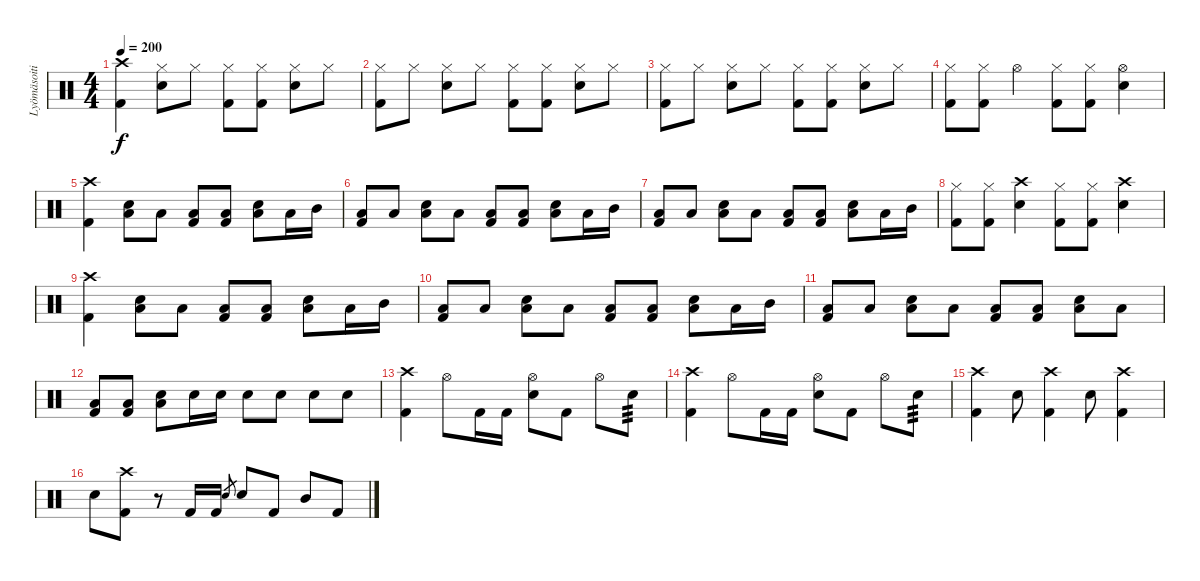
\track ("Lyömäsoitin" "Lyömäsoiti") {instrument percussion}
\staff {score}
\articulation defaults
\ts (4 4)
\tempo 200
\clef neutral
\ks c
("Crash high (hit)" "Kick (hit) 2").4{dy f} ("Hi-Hat (closed)" "Snare (hit) 2").8 "Hi-Hat (closed)".8 ("Hi-Hat (closed)" "Kick (hit) 2").8 ("Hi-Hat (closed)" "Kick (hit) 2").8 ("Hi-Hat (closed)" "Snare (hit) 2").8 "Hi-Hat (closed)".8 |
("Hi-Hat (closed)" "Kick (hit) 2").8 "Hi-Hat (closed)".8 ("Hi-Hat (closed)" "Snare (hit) 2").8 "Hi-Hat (closed)".8 ("Hi-Hat (closed)" "Kick (hit) 2").8 ("Hi-Hat (closed)" "Kick (hit) 2").8 ("Hi-Hat (closed)" "Snare (hit) 2").8 "Hi-Hat (closed)".8 |
("Hi-Hat (closed)" "Kick (hit) 2").8 "Hi-Hat (closed)".8 ("Hi-Hat (closed)" "Snare (hit) 2").8 "Hi-Hat (closed)".8 ("Hi-Hat (closed)" "Kick (hit) 2").8 ("Hi-Hat (closed)" "Kick (hit) 2").8 ("Hi-Hat (closed)" "Snare (hit) 2").8 "Hi-Hat (closed)".8 |
("Hi-Hat (closed)" "Kick (hit) 2").8 ("Hi-Hat (closed)" "Kick (hit) 2").8 "Hi-Hat (open)".4 ("Hi-Hat (closed)" "Kick (hit) 2").8 ("Hi-Hat (closed)" "Kick (hit) 2").8 ("Hi-Hat (open)" "Snare (hit) 2").4 |
("Crash high (hit)" "Kick (hit) 2").4 ("Snare (hit) 2" "Low Tom (hit)").8 "Low Tom (hit)".8 ("Low Tom (hit)" "Kick (hit) 2").8 ("Low Tom (hit)" "Kick (hit) 2").8 ("Snare (hit) 2" "Low Tom (hit)").8 "Low Tom (hit)".16 "Mid Tom (hit)".16 |
("Low Tom (hit)" "Kick (hit) 2").8 "Low Tom (hit)".8 ("Snare (hit) 2" "Low Tom (hit)").8 "Low Tom (hit)".8 ("Low Tom (hit)" "Kick (hit) 2").8 ("Low Tom (hit)" "Kick (hit) 2").8 ("Low Tom (hit)" "Snare (hit) 2").8 "Low Tom (hit)".16 "Mid Tom (hit)".16 |
("Low Tom (hit)" "Kick (hit) 2").8 "Low Tom (hit)".8 ("Snare (hit) 2" "Low Tom (hit)").8 "Low Tom (hit)".8 ("Low Tom (hit)" "Kick (hit) 2").8 ("Low Tom (hit)" "Kick (hit) 2").8 ("Low Tom (hit)" "Snare (hit) 2").8 "Low Tom (hit)".16 "Mid Tom (hit)".16 |
("Hi-Hat (closed)" "Kick (hit) 2").8 ("Hi-Hat (closed)" "Kick (hit) 2").8 ("Crash high (hit)" "Snare (hit) 2").4 ("Hi-Hat (closed)" "Kick (hit) 2").8 ("Hi-Hat (closed)" "Kick (hit) 2").8 ("Crash high (hit)" "Snare (hit) 2").4 |
("Crash high (hit)" "Kick (hit) 2").4 ("Snare (hit) 2" "Low Tom (hit)").8 "Low Tom (hit)".8 ("Kick (hit) 2" "Low Tom (hit)").8 ("Kick (hit) 2" "Low Tom (hit)").8 ("Snare (hit) 2" "Low Tom (hit)").8 "Low Tom (hit)".16 "Mid Tom (hit)".16 |
("Low Tom (hit)" "Kick (hit) 2").8 "Low Tom (hit)".8 ("Low Tom (hit)" "Snare (hit) 2").8 "Low Tom (hit)".8 ("Low Tom (hit)" "Kick (hit) 2").8 ("Low Tom (hit)" "Kick (hit) 2").8 ("Low Tom (hit)" "Snare (hit) 2").8 "Low Tom (hit)".16 "Mid Tom (hit)".16 |
("Low Tom (hit)" "Kick (hit) 2").8 "Low Tom (hit)".8 ("Low Tom (hit)" "Snare (hit) 2").8 "Low Tom (hit)".8 ("Low Tom (hit)" "Kick (hit) 2").8 ("Low Tom (hit)" "Kick (hit) 2").8 ("Low Tom (hit)" "Snare (hit) 2").8 "Low Tom (hit)".8 |
("Low Tom (hit)" "Kick (hit) 2").8 ("Low Tom (hit)" "Kick (hit) 2").8 ("Low Tom (hit)" "Snare (hit) 2").8 "Snare (hit) 2".16 "Snare (hit) 2".16 "Snare (hit) 2".8 "Snare (hit) 2".8 "Snare (hit) 2".8 "Snare (hit) 2".8 |
("Crash high (hit)" "Kick (hit) 2").4 "Hi-Hat (open)".8 "Kick (hit) 2".16 "Kick (hit) 2".16 ("Hi-Hat (open)" "Snare (hit) 2").8 "Kick (hit) 2".8 "Hi-Hat (open)".8 "Snare (hit) 2".8{tp 3} |
("Crash high (hit)" "Kick (hit) 2").4 "Hi-Hat (open)".8 "Kick (hit) 2".16 "Kick (hit) 2".16 ("Hi-Hat (open)" "Snare (hit) 2").8 "Kick (hit) 2".8 "Hi-Hat (open)".8 "Snare (hit) 2".8{tp 3} |
("Crash high (hit)" "Kick (hit) 2").4 "Snare (hit) 2".8 ("Crash high (hit)" "Kick (hit) 2").4 "Snare (hit) 2".8 ("Crash high (hit)" "Kick (hit) 2").4 |
"Snare (hit) 2".8 ("Crash high (hit)" "Kick (hit) 2").8 r.8 "Kick (hit) 2".16 "Kick (hit) 2".16 "Snare (hit) 2".8{gr} "Snare (hit) 2".8 "Kick (hit) 2".8 "Mid Tom (hit)".8 "Kick (hit) 2".8
